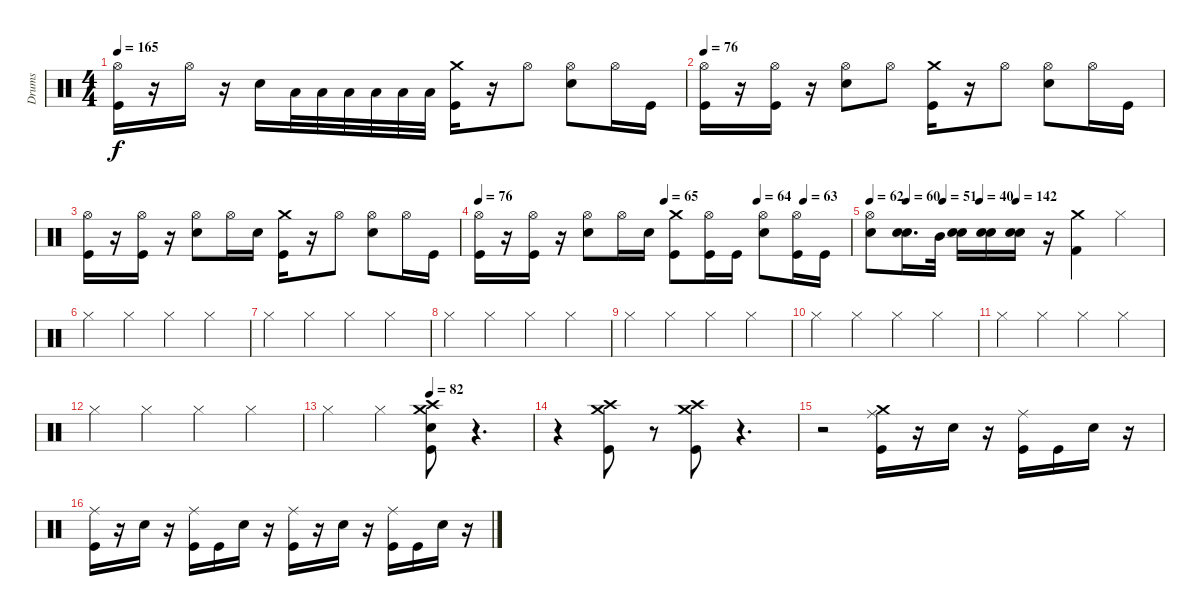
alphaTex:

\track ("Drums" "Drums") {instrument percussion}
\staff {score}
\articulation defaults
\ts (4 4)
\tempo 165
\clef neutral
\ks c
("Hi-Hat (open)" "Kick (hit)").16{dy f} r.16 "Hi-Hat (open)".16 r.16 "Electric Snare (hit)".16 "Low Tom (hit)".32 "Low Tom (hit)".32 "Low Tom (hit)".32 "Low Tom (hit)".32 "Low Tom (hit)".32 "Low Tom (hit)".32 ("Crash medium (hit)" "Kick (hit)").16 r.16 "Hi-Hat (open)".8 ("Hi-Hat (open)" "Electric Snare (hit)").8 "Hi-Hat (open)".16 "Kick (hit)".16 |
\tempo 76
("Hi-Hat (open)" "Kick (hit)").16 r.16 ("Kick (hit)" "Hi-Hat (open)").16 r.16 ("Hi-Hat (open)" "Electric Snare (hit)").8 "Hi-Hat (open)".8 ("Crash medium (hit)" "Kick (hit)").16 r.16 "Hi-Hat (open)".8 ("Hi-Hat (open)" "Electric Snare (hit)").8 "Hi-Hat (open)".16 "Kick (hit)".16 |
("Hi-Hat (open)" "Kick (hit)").16 r.16 ("Kick (hit)" "Hi-Hat (open)").16 r.16 ("Hi-Hat (open)" "Electric Snare (hit)").8 "Hi-Hat (open)".16 "Electric Snare (hit)".16 ("Crash medium (hit)" "Kick (hit)").16 r.16 "Hi-Hat (open)".8 ("Hi-Hat (open)" "Electric Snare (hit)").8 "Hi-Hat (open)".16 "Kick (hit)".16 |
\tempo 76
\tempo (65 0.5)
\tempo (64 0.75)
\tempo (63 0.875)
("Hi-Hat (open)" "Kick (hit)").16 r.16 ("Kick (hit)" "Hi-Hat (open)").16 r.16 ("Hi-Hat (open)" "Electric Snare (hit)").8 "Hi-Hat (open)".16 "Electric Snare (hit)".16 ("Crash medium (hit)" "Kick (hit)").8 ("Kick (hit)" "Hi-Hat (open)").16 "Kick (hit)".16 ("Hi-Hat (open)" "Electric Snare (hit)").8 ("Kick (hit)" "Hi-Hat (open)").16 "Kick (hit)".16 |
\tempo 62
\tempo (60 0.125)
\tempo (51 0.25)
\tempo (40 0.375)
\tempo (142 0.5)
("Electric Snare (hit)" "Hi-Hat (open)").8 ("Electric Snare (hit)" "Electric Snare (hit)").16{d} "Mid Tom (hit)".32 ("Electric Snare (hit)" "Electric Snare (hit)").16 ("Electric Snare (hit)" "Electric Snare (hit)").16 ("Electric Snare (hit)" "Electric Snare (hit)").16 r.16 ("Kick (hit) 2" "Crash medium (hit)").4{volume 14 balance 8} "Hi-Hat (closed)".4{volume 14 balance 8} |
"Hi-Hat (closed)".4 "Hi-Hat (closed)".4 "Hi-Hat (closed)".4 "Hi-Hat (closed)".4 |
"Hi-Hat (closed)".4 "Hi-Hat (closed)".4 "Hi-Hat (closed)".4 "Hi-Hat (closed)".4 |
"Hi-Hat (closed)".4 "Hi-Hat (closed)".4 "Hi-Hat (closed)".4 "Hi-Hat (closed)".4 |
"Hi-Hat (closed)".4 "Hi-Hat (closed)".4 "Hi-Hat (closed)".4 "Hi-Hat (closed)".4 |
"Hi-Hat (closed)".4 "Hi-Hat (closed)".4 "Hi-Hat (closed)".4 "Hi-Hat (closed)".4 |
"Hi-Hat (closed)".4 "Hi-Hat (closed)".4 "Hi-Hat (closed)".4 "Hi-Hat (closed)".4 |
"Hi-Hat (closed)".4 "Hi-Hat (closed)".4 "Hi-Hat (closed)".4 "Hi-Hat (closed)".4 |
\tempo (82 0.5)
"Hi-Hat (closed)".4 "Hi-Hat (closed)".4 ("Crash high (hit)" "Electric Snare (hit)" "Crash medium (hit)" "Kick (hit)").8 r.4{d} |
r.4 ("Crash high (hit)" "Crash medium (hit)" "Kick (hit)").8 r.8 ("Kick (hit)" "Crash high (hit)" "Crash medium (hit)").8 r.4{d} |
r.2 ("Crash medium (hit)" "Ride (middle)" "Kick (hit)").16 r.16 "Electric Snare (hit)".16 r.16 ("Ride (middle)" "Kick (hit)").16 "Kick (hit)".16 "Electric Snare (hit)".16 r.16 |
("Ride (middle)" "Kick (hit)").16 r.16 "Electric Snare (hit)".16 r.16 ("Ride (middle)" "Kick (hit)").16 "Kick (hit)".16 "Electric Snare (hit)".16 r.16 ("Kick (hit)" "Ride (middle)").16 r.16 "Electric Snare (hit)".16 r.16 ("Kick (hit)" "Ride (middle)").16 "Kick (hit)".16 "Electric Snare (hit)".16 r.16
